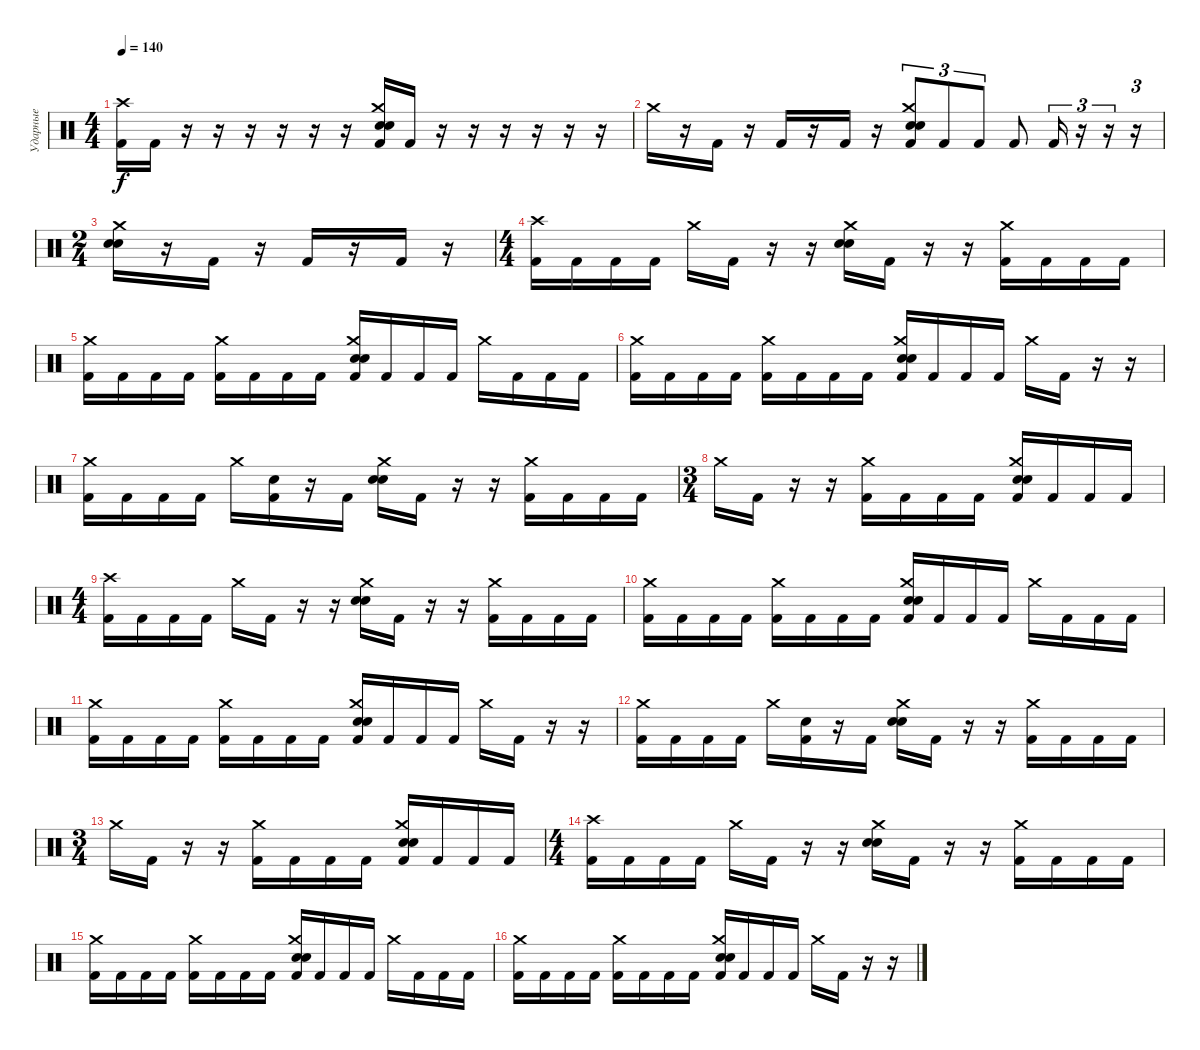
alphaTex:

\track ("Ударные" "Ударные") {instrument percussion}
\staff {score}
\articulation defaults
\ts (4 4)
\tempo 140
\clef neutral
\ks c
("Crash high (hit)" "Kick (hit) 2").16{dy f} "Kick (hit) 2".16 r.16 r.16 r.16 r.16 r.16 r.16 ("Crash medium (hit)" "Electric Snare (hit)" "Snare (hit) 2" "Kick (hit) 2").16 "Kick (hit) 2".16 r.16 r.16 r.16 r.16 r.16 r.16 |
"Crash medium (hit)".16 r.16 "Kick (hit) 2".16 r.16 "Kick (hit) 2".16 r.16 "Kick (hit) 2".16 r.16 ("Crash medium (hit)" "Snare (hit) 2" "Electric Snare (hit)" "Kick (hit) 2").8{tu (3 2)} "Kick (hit) 2".8{tu (3 2)} "Kick (hit) 2".8{tu (3 2)} "Kick (hit) 2".8 "Kick (hit) 2".16{tu (3 2)} r.16{tu (3 2)} r.16{tu (3 2)} r.16{tu (3 2)} |
\ts (2 4)
("Crash medium (hit)" "Electric Snare (hit)" "Snare (hit) 2").16 r.16 "Kick (hit) 2".16 r.16 "Kick (hit) 2".16 r.16 "Kick (hit) 2".16 r.16 |
\ts (4 4)
("Crash high (hit)" "Kick (hit) 2").16 "Kick (hit) 2".16 "Kick (hit) 2".16 "Kick (hit) 2".16 "Crash medium (hit)".16 "Kick (hit) 2".16 r.16 r.16 ("Crash medium (hit)" "Electric Snare (hit)" "Snare (hit) 2").16 "Kick (hit) 2".16 r.16 r.16 ("Crash medium (hit)" "Kick (hit) 2").16 "Kick (hit) 2".16 "Kick (hit) 2".16 "Kick (hit) 2".16 |
("Crash medium (hit)" "Kick (hit) 2").16 "Kick (hit) 2".16 "Kick (hit) 2".16 "Kick (hit) 2".16 ("Crash medium (hit)" "Kick (hit) 2").16 "Kick (hit) 2".16 "Kick (hit) 2".16 "Kick (hit) 2".16 ("Crash medium (hit)" "Electric Snare (hit)" "Snare (hit) 2" "Kick (hit) 2").16 "Kick (hit) 2".16 "Kick (hit) 2".16 "Kick (hit) 2".16 "Crash medium (hit)".16 "Kick (hit) 2".16 "Kick (hit) 2".16 "Kick (hit) 2".16 |
("Crash medium (hit)" "Kick (hit) 2").16 "Kick (hit) 2".16 "Kick (hit) 2".16 "Kick (hit) 2".16 ("Crash medium (hit)" "Kick (hit) 2").16 "Kick (hit) 2".16 "Kick (hit) 2".16 "Kick (hit) 2".16 ("Crash medium (hit)" "Electric Snare (hit)" "Snare (hit) 2" "Kick (hit) 2").16 "Kick (hit) 2".16 "Kick (hit) 2".16 "Kick (hit) 2".16 "Crash medium (hit)".16 "Kick (hit) 2".16 r.16 r.16 |
("Crash medium (hit)" "Kick (hit) 2").16 "Kick (hit) 2".16 "Kick (hit) 2".16 "Kick (hit) 2".16 "Crash medium (hit)".16 ("Snare (hit)" "Kick (hit) 2").16 r.16 "Kick (hit) 2".16 ("Crash medium (hit)" "Electric Snare (hit)" "Snare (hit) 2").16 "Kick (hit) 2".16 r.16 r.16 ("Crash medium (hit)" "Kick (hit) 2").16 "Kick (hit) 2".16 "Kick (hit) 2".16 "Kick (hit) 2".16 |
\ts (3 4)
"Crash medium (hit)".16 "Kick (hit) 2".16 r.16 r.16 ("Crash medium (hit)" "Kick (hit) 2").16 "Kick (hit) 2".16 "Kick (hit) 2".16 "Kick (hit) 2".16 ("Crash medium (hit)" "Electric Snare (hit)" "Snare (hit) 2" "Kick (hit) 2").16 "Kick (hit) 2".16 "Kick (hit) 2".16 "Kick (hit) 2".16 |
\ts (4 4)
("Crash high (hit)" "Kick (hit) 2").16 "Kick (hit) 2".16 "Kick (hit) 2".16 "Kick (hit) 2".16 "Crash medium (hit)".16 "Kick (hit) 2".16 r.16 r.16 ("Crash medium (hit)" "Electric Snare (hit)" "Snare (hit) 2").16 "Kick (hit) 2".16 r.16 r.16 ("Crash medium (hit)" "Kick (hit) 2").16 "Kick (hit) 2".16 "Kick (hit) 2".16 "Kick (hit) 2".16 |
("Crash medium (hit)" "Kick (hit) 2").16 "Kick (hit) 2".16 "Kick (hit) 2".16 "Kick (hit) 2".16 ("Crash medium (hit)" "Kick (hit) 2").16 "Kick (hit) 2".16 "Kick (hit) 2".16 "Kick (hit) 2".16 ("Crash medium (hit)" "Electric Snare (hit)" "Snare (hit) 2" "Kick (hit) 2").16 "Kick (hit) 2".16 "Kick (hit) 2".16 "Kick (hit) 2".16 "Crash medium (hit)".16 "Kick (hit) 2".16 "Kick (hit) 2".16 "Kick (hit) 2".16 |
("Crash medium (hit)" "Kick (hit) 2").16 "Kick (hit) 2".16 "Kick (hit) 2".16 "Kick (hit) 2".16 ("Crash medium (hit)" "Kick (hit) 2").16 "Kick (hit) 2".16 "Kick (hit) 2".16 "Kick (hit) 2".16 ("Crash medium (hit)" "Electric Snare (hit)" "Snare (hit) 2" "Kick (hit) 2").16 "Kick (hit) 2".16 "Kick (hit) 2".16 "Kick (hit) 2".16 "Crash medium (hit)".16 "Kick (hit) 2".16 r.16 r.16 |
("Crash medium (hit)" "Kick (hit) 2").16 "Kick (hit) 2".16 "Kick (hit) 2".16 "Kick (hit) 2".16 "Crash medium (hit)".16 ("Snare (hit)" "Kick (hit) 2").16 r.16 "Kick (hit) 2".16 ("Crash medium (hit)" "Electric Snare (hit)" "Snare (hit) 2").16 "Kick (hit) 2".16 r.16 r.16 ("Crash medium (hit)" "Kick (hit) 2").16 "Kick (hit) 2".16 "Kick (hit) 2".16 "Kick (hit) 2".16 |
\ts (3 4)
"Crash medium (hit)".16 "Kick (hit) 2".16 r.16 r.16 ("Crash medium (hit)" "Kick (hit) 2").16 "Kick (hit) 2".16 "Kick (hit) 2".16 "Kick (hit) 2".16 ("Crash medium (hit)" "Electric Snare (hit)" "Snare (hit) 2" "Kick (hit) 2").16 "Kick (hit) 2".16 "Kick (hit) 2".16 "Kick (hit) 2".16 |
\ts (4 4)
("Crash high (hit)" "Kick (hit) 2").16 "Kick (hit) 2".16 "Kick (hit) 2".16 "Kick (hit) 2".16 "Crash medium (hit)".16 "Kick (hit) 2".16 r.16 r.16 ("Crash medium (hit)" "Electric Snare (hit)" "Snare (hit) 2").16 "Kick (hit) 2".16 r.16 r.16 ("Crash medium (hit)" "Kick (hit) 2").16 "Kick (hit) 2".16 "Kick (hit) 2".16 "Kick (hit) 2".16 |
("Crash medium (hit)" "Kick (hit) 2").16 "Kick (hit) 2".16 "Kick (hit) 2".16 "Kick (hit) 2".16 ("Crash medium (hit)" "Kick (hit) 2").16 "Kick (hit) 2".16 "Kick (hit) 2".16 "Kick (hit) 2".16 ("Crash medium (hit)" "Electric Snare (hit)" "Snare (hit) 2" "Kick (hit) 2").16 "Kick (hit) 2".16 "Kick (hit) 2".16 "Kick (hit) 2".16 "Crash medium (hit)".16 "Kick (hit) 2".16 "Kick (hit) 2".16 "Kick (hit) 2".16 |
("Crash medium (hit)" "Kick (hit) 2").16 "Kick (hit) 2".16 "Kick (hit) 2".16 "Kick (hit) 2".16 ("Crash medium (hit)" "Kick (hit) 2").16 "Kick (hit) 2".16 "Kick (hit) 2".16 "Kick (hit) 2".16 ("Crash medium (hit)" "Electric Snare (hit)" "Snare (hit) 2" "Kick (hit) 2").16 "Kick (hit) 2".16 "Kick (hit) 2".16 "Kick (hit) 2".16 "Crash medium (hit)".16 "Kick (hit) 2".16 r.16 r.16
